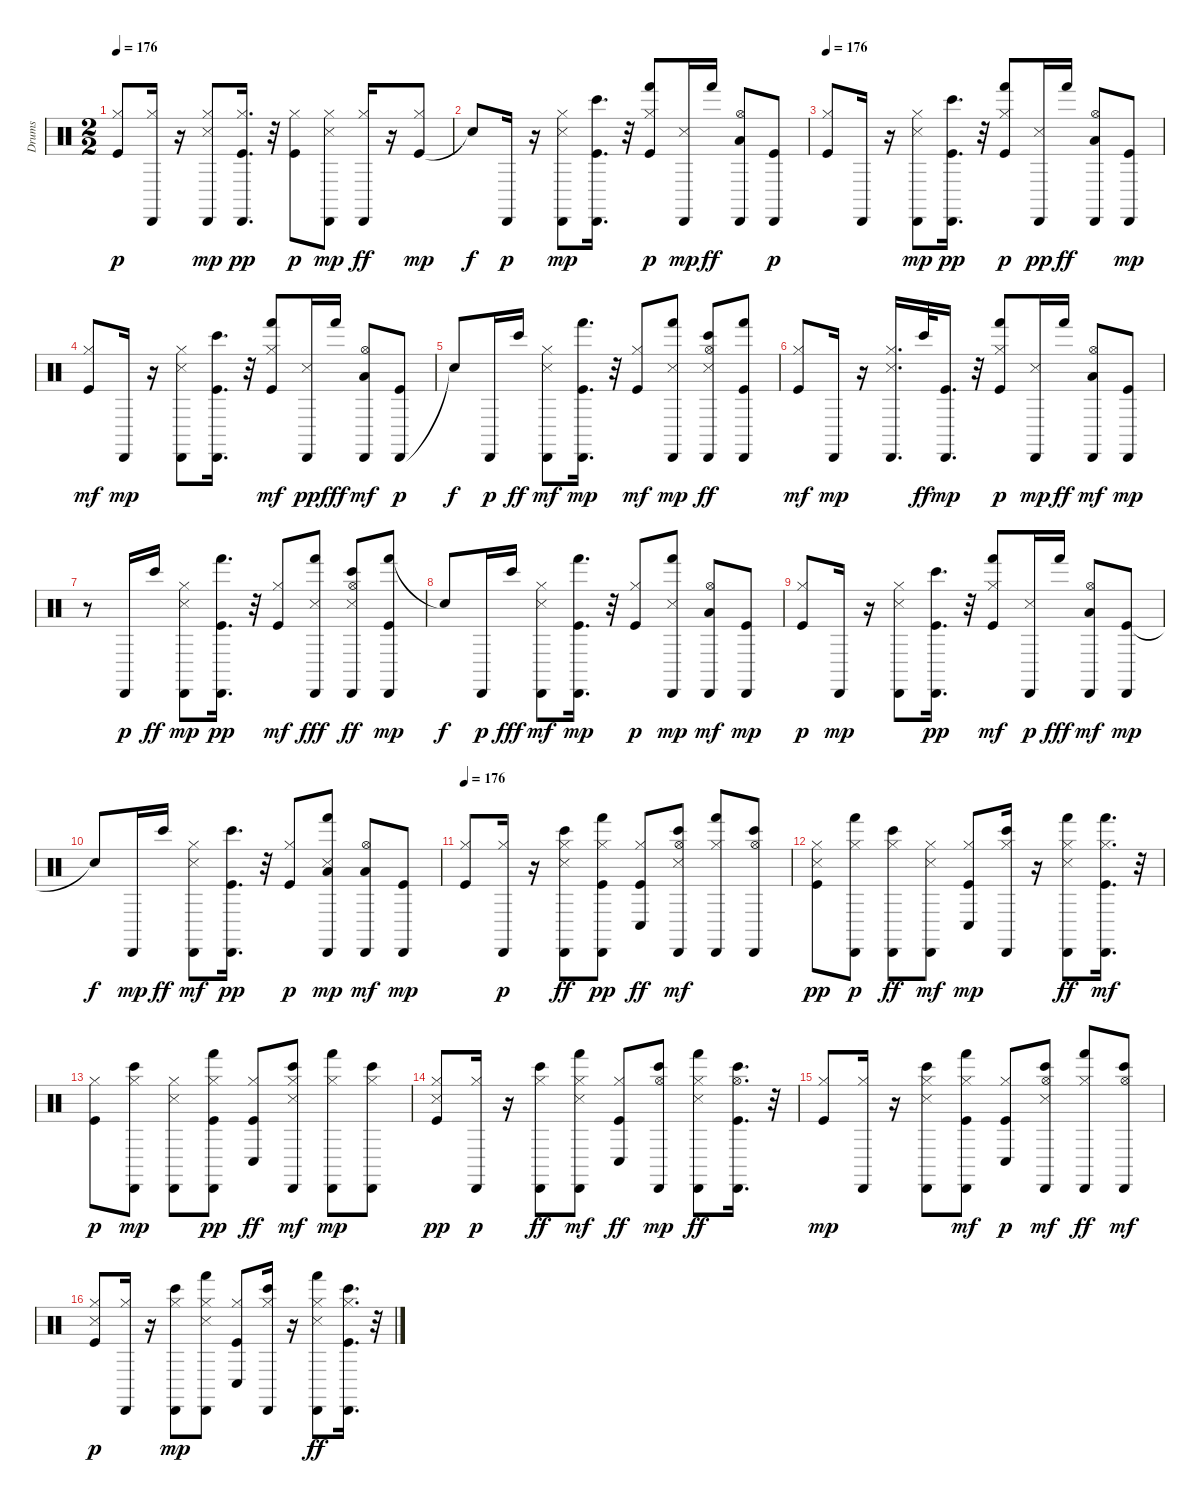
\track ("Drums     " "Drums     ") {instrument percussion}
\staff {score}
\articulation defaults
\ts (2 2)
\tempo 176
\clef neutral
\ks c
("Hi-Hat (closed)" "Kick (hit)").8{dy p} ("Hi-Hat (closed)" "Cabasa (hit)").16 r.16 ("Hi-Hat (closed)" "Snare (side stick) 3" "Cabasa (hit)").8{dy mp} ("Hi-Hat (closed)" "Kick (hit)" "Cabasa (hit)").16{d dy pp} r.32 ("Hi-Hat (closed)" "Kick (hit)").8{dy p} ("Cabasa (hit)" "Hi-Hat (closed)" "Snare (side stick) 3").8{dy mp} ("Hi-Hat (closed)" "Cabasa (hit)").16{dy ff} r.16 ("Kick (hit)" "Hi-Hat (closed)").8{dy mp} |
"Snare (hit)"{t}.8{dy f} "Cabasa (hit)".16{dy p} r.16 ("Cabasa (hit)" "Hi-Hat (closed)" "Snare (side stick) 3").8{dy mp} ("Bongo High (hit)" "Kick (hit)" "Cabasa (hit)").16{d} r.32 ("Hand (hit)" "Hi-Hat (closed)" "Kick (hit)").8{dy p} ("Cabasa (hit)" "Snare (side stick) 3").16{dy mp} "Hand (hit)".16{dy ff} ("Low Floor Tom (hit)" "Cabasa (hit)" "Hi-Hat (open)").8 ("Cabasa (hit)" "Kick (hit)").8{dy p} |
\tempo 176
("Hi-Hat (closed)" "Kick (hit)").8 "Cabasa (hit)".16 r.16 ("Hi-Hat (closed)" "Cabasa (hit)" "Snare (side stick) 3").8{dy mp} ("Bongo High (hit)" "Cabasa (hit)" "Kick (hit)").16{d dy pp} r.32 ("Hand (hit)" "Hi-Hat (closed)" "Kick (hit)").8{dy p} ("Snare (side stick) 3" "Cabasa (hit)").16{dy pp} "Hand (hit)".16{dy ff} ("Cabasa (hit)" "Low Floor Tom (hit)" "Hi-Hat (open)").8 ("Kick (hit)" "Cabasa (hit)").8{dy mp} |
("Kick (hit)" "Hi-Hat (closed)").8{dy mf} "Cabasa (hit)".16{dy mp} r.16 ("Hi-Hat (closed)" "Snare (side stick) 3" "Cabasa (hit)").8 ("Bongo High (hit)" "Kick (hit)" "Cabasa (hit)").16{d} r.32 ("Hand (hit)" "Kick (hit)" "Hi-Hat (closed)").8{dy mf} ("Snare (side stick) 3" "Cabasa (hit)").16{dy pp} "Hand (hit)".16{dy fff} ("Low Floor Tom (hit)" "Hi-Hat (open)" "Cabasa (hit)").8{dy mf} ("Cabasa (hit)" "Kick (hit)").8{dy p} |
"Snare (hit)"{t}.8{dy f} "Cabasa (hit)".16{dy p} "Bongo High (hit)".16{dy ff} ("Snare (side stick) 3" "Hi-Hat (closed)" "Cabasa (hit)").8{dy mf} ("Hand (hit)" "Kick (hit)" "Cabasa (hit)").16{d dy mp} r.32 ("Kick (hit)" "Hi-Hat (closed)").8{dy mf} ("Hand (hit)" "Cabasa (hit)" "Snare (side stick) 3").8{dy mp} ("Cabasa (hit)" "Hi-Hat (open)" "Snare (side stick) 3" "Bongo High (hit)").8{dy ff} ("Kick (hit)" "Cabasa (hit)" "Hand (hit)").8 |
("Kick (hit)" "Hi-Hat (closed)").8{dy mf} "Cabasa (hit)".16{dy mp} r.16 ("Cabasa (hit)" "Hi-Hat (closed)" "Snare (side stick) 3").16{d} "Bongo High (hit)".32{dy ff} ("Kick (hit)" "Cabasa (hit)").16{d dy mp} r.32 ("Hand (hit)" "Hi-Hat (closed)" "Kick (hit)").8{dy p} ("Cabasa (hit)" "Snare (side stick) 3").16{dy mp} "Hand (hit)".16{dy ff} ("Low Floor Tom (hit)" "Hi-Hat (open)" "Cabasa (hit)").8{dy mf} ("Kick (hit)" "Cabasa (hit)").8{dy mp} |
r.8 "Cabasa (hit)".16{dy p} "Bongo High (hit)".16{dy ff} ("Snare (side stick) 3" "Hi-Hat (closed)" "Cabasa (hit)").8{dy mp} ("Hand (hit)" "Cabasa (hit)" "Kick (hit)").16{d dy pp} r.32 ("Kick (hit)" "Hi-Hat (closed)").8{dy mf} ("Cabasa (hit)" "Snare (side stick) 3" "Hand (hit)").8{dy fff} ("Cabasa (hit)" "Hi-Hat (open)" "Snare (side stick) 3" "Bongo High (hit)").8{dy ff} ("Hand (hit)" "Kick (hit)" "Cabasa (hit)").8{dy mp} |
"Snare (hit)"{t}.8{dy f} "Cabasa (hit)".16{dy p} "Bongo High (hit)".16{dy fff} ("Snare (side stick) 3" "Cabasa (hit)" "Hi-Hat (closed)").8{dy mf} ("Hand (hit)" "Kick (hit)" "Cabasa (hit)").16{d dy mp} r.32 ("Hi-Hat (closed)" "Kick (hit)").8{dy p} ("Cabasa (hit)" "Hand (hit)" "Snare (side stick) 3").8{dy mp} ("Low Floor Tom (hit)" "Cabasa (hit)" "Hi-Hat (open)").8{dy mf} ("Kick (hit)" "Cabasa (hit)").8{dy mp} |
("Hi-Hat (closed)" "Kick (hit)").8{dy p} "Cabasa (hit)".16{dy mp} r.16 ("Cabasa (hit)" "Hi-Hat (closed)" "Snare (side stick) 3").8 ("Bongo High (hit)" "Cabasa (hit)" "Kick (hit)").16{d dy pp} r.32 ("Hand (hit)" "Kick (hit)" "Hi-Hat (closed)").8{dy mf} ("Snare (side stick) 3" "Cabasa (hit)").16{dy p} "Hand (hit)".16{dy fff} ("Low Floor Tom (hit)" "Hi-Hat (open)" "Cabasa (hit)").8{dy mf} ("Kick (hit)" "Cabasa (hit)").8{dy mp} |
"Snare (hit)"{t}.8{dy f} "Cabasa (hit)".16{dy mp} "Bongo High (hit)".16{dy ff} ("Cabasa (hit)" "Snare (side stick) 3" "Hi-Hat (closed)").8{dy mf} ("Bongo High (hit)" "Cabasa (hit)" "Kick (hit)").16{d dy pp} r.32 ("Hi-Hat (closed)" "Kick (hit)").8{dy p} ("Cabasa (hit)" "Low Tom (hit)" "Hand (hit)" "Snare (side stick) 3").8{dy mp} ("Hi-Hat (open)" "Low Floor Tom (hit)" "Cabasa (hit)").8{dy mf} ("Kick (hit)" "Cabasa (hit)").8{dy mp} |
\tempo 176
("Kick (hit)" "Hi-Hat (closed)").8 ("Hi-Hat (closed)" "Cabasa (hit)").16{dy p} r.16 ("Cabasa (hit)" "Hi-Hat (closed)" "Bongo High (hit)" "Snare (side stick) 3").8{dy ff} ("Hand (hit)" "Cabasa (hit)" "Hi-Hat (closed)" "Kick (hit)").8{dy pp} ("Kick (hit)" "Hi-Hat (closed)" "Conga low (hit)").8{dy ff} ("Hi-Hat (open)" "Snare (side stick) 3" "Cabasa (hit)" "Bongo High (hit)").8{dy mf} ("Hi-Hat (closed)" "Hand (hit)" "Cabasa (hit)").8 ("Bongo High (hit)" "Hi-Hat (open)" "Cabasa (hit)").8 |
("Hi-Hat (closed)" "Snare (side stick) 3" "Kick (hit)").8{dy pp} ("Hand (hit)" "Cabasa (hit)" "Hi-Hat (closed)").8{dy p} ("Hi-Hat (closed)" "Bongo High (hit)" "Cabasa (hit)").8{dy ff} ("Hi-Hat (closed)" "Cabasa (hit)" "Snare (side stick) 3").8{dy mf} ("Kick (hit)" "Conga low (hit)" "Hi-Hat (closed)").8{dy mp} ("Hi-Hat (closed)" "Bongo High (hit)" "Cabasa (hit)").16 r.16 ("Hi-Hat (closed)" "Hand (hit)" "Snare (side stick) 3" "Cabasa (hit)").8{dy ff} ("Hi-Hat (closed)" "Kick (hit)" "Hand (hit)" "Cabasa (hit)").16{d dy mf} r.32 |
("Hi-Hat (closed)" "Kick (hit)").8{dy p} ("Cabasa (hit)" "Bongo High (hit)" "Hi-Hat (closed)").8{dy mp} ("Snare (side stick) 3" "Cabasa (hit)" "Hi-Hat (closed)").8 ("Hi-Hat (closed)" "Hand (hit)" "Cabasa (hit)" "Kick (hit)").8{dy pp} ("Kick (hit)" "Hi-Hat (closed)" "Conga low (hit)").8{dy ff} ("Hi-Hat (closed)" "Snare (side stick) 3" "Cabasa (hit)" "Bongo High (hit)").8{dy mf} ("Hi-Hat (closed)" "Hand (hit)" "Cabasa (hit)").8{dy mp} ("Bongo High (hit)" "Cabasa (hit)" "Hi-Hat (closed)").8 |
("Hi-Hat (closed)" "Snare (side stick) 3" "Kick (hit)").8{dy pp} ("Hi-Hat (closed)" "Cabasa (hit)").16{dy p} r.16 ("Cabasa (hit)" "Hi-Hat (closed)" "Bongo High (hit)").8{dy ff} ("Hi-Hat (closed)" "Snare (side stick) 3" "Cabasa (hit)" "Hand (hit)").8{dy mf} ("Kick (hit)" "Hi-Hat (closed)" "Conga low (hit)").8{dy ff} ("Bongo High (hit)" "Hi-Hat (open)" "Cabasa (hit)").8{dy mp} ("Snare (side stick) 3" "Hi-Hat (closed)" "Cabasa (hit)" "Hand (hit)").8{dy ff} ("Kick (hit)" "Cabasa (hit)" "Hi-Hat (open)" "Bongo High (hit)").16{d} r.32 |
("Kick (hit)" "Hi-Hat (closed)").8{dy mp} ("Hi-Hat (closed)" "Cabasa (hit)").16 r.16 ("Cabasa (hit)" "Bongo High (hit)" "Hi-Hat (closed)" "Snare (side stick) 3").8 ("Kick (hit)" "Hand (hit)" "Hi-Hat (closed)" "Cabasa (hit)").8{dy mf} ("Kick (hit)" "Conga low (hit)" "Hi-Hat (closed)").8{dy p} ("Hi-Hat (open)" "Cabasa (hit)" "Snare (side stick) 3" "Bongo High (hit)").8{dy mf} ("Hand (hit)" "Cabasa (hit)" "Hi-Hat (closed)").8{dy ff} ("Bongo High (hit)" "Hi-Hat (open)" "Cabasa (hit)").8{dy mf} |
("Kick (hit)" "Snare (side stick) 3" "Hi-Hat (closed)").8{dy p} ("Cabasa (hit)" "Hi-Hat (closed)").16 r.16 ("Cabasa (hit)" "Bongo High (hit)" "Hi-Hat (closed)").8{dy mp} ("Snare (side stick) 3" "Cabasa (hit)" "Hand (hit)" "Hi-Hat (closed)").8 ("Conga low (hit)" "Kick (hit)" "Hi-Hat (closed)").8 ("Hi-Hat (closed)" "Cabasa (hit)" "Bongo High (hit)").16 r.16 ("Hand (hit)" "Hi-Hat (closed)" "Snare (side stick) 3" "Cabasa (hit)").8{dy ff} ("Kick (hit)" "Hi-Hat (closed)" "Cabasa (hit)" "Bongo High (hit)").16{d} r.32
